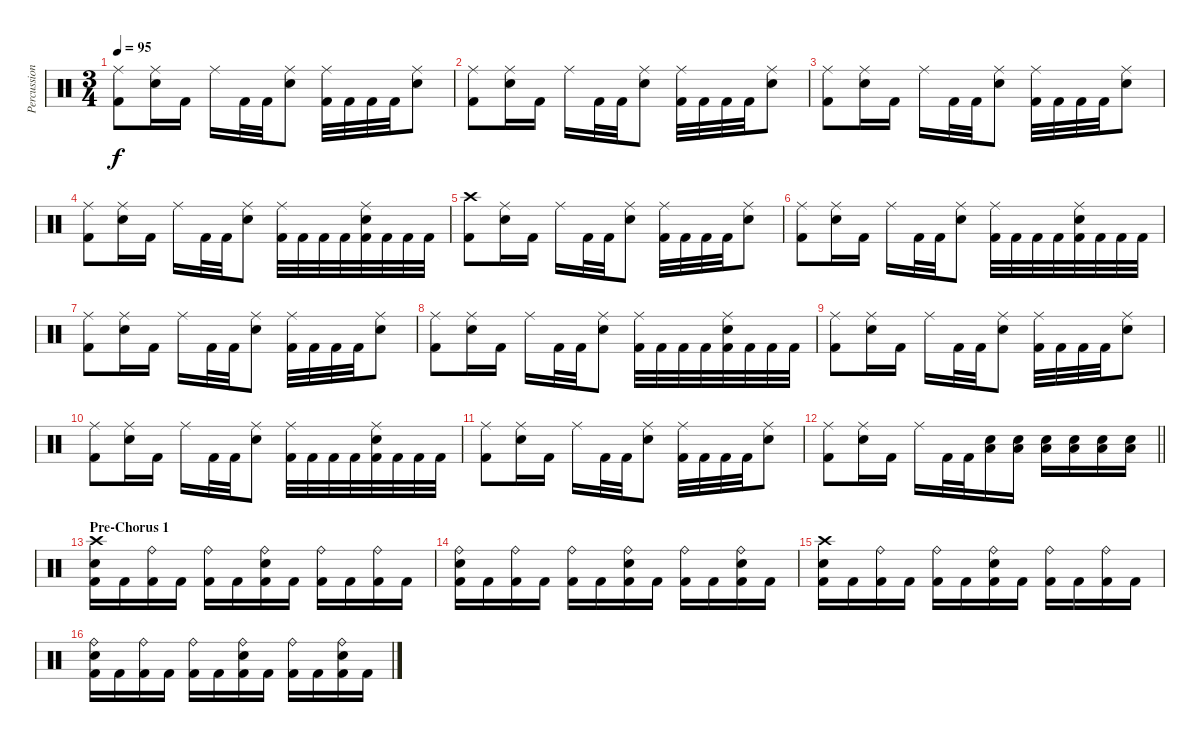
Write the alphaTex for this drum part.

\track ("Percussion Mike" "Percussion") {instrument percussion}
\staff {score}
\articulation defaults
\ts (3 4)
\tempo 95
\clef neutral
\ks c
("Ride (middle)" "Kick (hit) 2").8{dy f} ("Ride (middle)" "Snare (hit) 2").16 "Kick (hit) 2".16 "Ride (middle)".16 "Kick (hit) 2".32 "Kick (hit) 2".32 ("Ride (middle)" "Snare (hit) 2").8 ("Ride (middle)" "Kick (hit) 2").32 "Kick (hit) 2".32 "Kick (hit) 2".32 "Kick (hit) 2".32 ("Ride (middle)" "Snare (hit) 2").8 |
("Ride (middle)" "Kick (hit) 2").8 ("Ride (middle)" "Snare (hit) 2").16 "Kick (hit) 2".16 "Ride (middle)".16 "Kick (hit) 2".32 "Kick (hit) 2".32 ("Ride (middle)" "Snare (hit) 2").8 ("Ride (middle)" "Kick (hit) 2").32 "Kick (hit) 2".32 "Kick (hit) 2".32 "Kick (hit) 2".32 ("Ride (middle)" "Snare (hit) 2").8 |
("Ride (middle)" "Kick (hit) 2").8 ("Ride (middle)" "Snare (hit) 2").16 "Kick (hit) 2".16 "Ride (middle)".16 "Kick (hit) 2".32 "Kick (hit) 2".32 ("Ride (middle)" "Snare (hit) 2").8 ("Ride (middle)" "Kick (hit) 2").32 "Kick (hit) 2".32 "Kick (hit) 2".32 "Kick (hit) 2".32 ("Ride (middle)" "Snare (hit) 2").8 |
("Ride (middle)" "Kick (hit) 2").8 ("Ride (middle)" "Snare (hit) 2").16 "Kick (hit) 2".16 "Ride (middle)".16 "Kick (hit) 2".32 "Kick (hit) 2".32 ("Ride (middle)" "Snare (hit) 2").8 ("Ride (middle)" "Kick (hit) 2").32 "Kick (hit) 2".32 "Kick (hit) 2".32 "Kick (hit) 2".32 ("Ride (middle)" "Snare (hit) 2" "Kick (hit) 2").32 "Kick (hit) 2".32 "Kick (hit) 2".32 "Kick (hit) 2".32 |
("Crash high (hit)" "Kick (hit) 2").8 ("Ride (middle)" "Snare (hit) 2").16 "Kick (hit) 2".16 "Ride (middle)".16 "Kick (hit) 2".32 "Kick (hit) 2".32 ("Ride (middle)" "Snare (hit) 2").8 ("Ride (middle)" "Kick (hit) 2").32 "Kick (hit) 2".32 "Kick (hit) 2".32 "Kick (hit) 2".32 ("Ride (middle)" "Snare (hit) 2").8 |
("Ride (middle)" "Kick (hit) 2").8 ("Ride (middle)" "Snare (hit) 2").16 "Kick (hit) 2".16 "Ride (middle)".16 "Kick (hit) 2".32 "Kick (hit) 2".32 ("Ride (middle)" "Snare (hit) 2").8 ("Ride (middle)" "Kick (hit) 2").32 "Kick (hit) 2".32 "Kick (hit) 2".32 "Kick (hit) 2".32 ("Ride (middle)" "Snare (hit) 2" "Kick (hit) 2").32 "Kick (hit) 2".32 "Kick (hit) 2".32 "Kick (hit) 2".32 |
("Ride (middle)" "Kick (hit) 2").8 ("Ride (middle)" "Snare (hit) 2").16 "Kick (hit) 2".16 "Ride (middle)".16 "Kick (hit) 2".32 "Kick (hit) 2".32 ("Ride (middle)" "Snare (hit) 2").8 ("Ride (middle)" "Kick (hit) 2").32 "Kick (hit) 2".32 "Kick (hit) 2".32 "Kick (hit) 2".32 ("Ride (middle)" "Snare (hit) 2").8 |
("Ride (middle)" "Kick (hit) 2").8 ("Ride (middle)" "Snare (hit) 2").16 "Kick (hit) 2".16 "Ride (middle)".16 "Kick (hit) 2".32 "Kick (hit) 2".32 ("Ride (middle)" "Snare (hit) 2").8 ("Ride (middle)" "Kick (hit) 2").32 "Kick (hit) 2".32 "Kick (hit) 2".32 "Kick (hit) 2".32 ("Ride (middle)" "Snare (hit) 2" "Kick (hit) 2").32 "Kick (hit) 2".32 "Kick (hit) 2".32 "Kick (hit) 2".32 |
("Ride (middle)" "Kick (hit) 2").8 ("Ride (middle)" "Snare (hit) 2").16 "Kick (hit) 2".16 "Ride (middle)".16 "Kick (hit) 2".32 "Kick (hit) 2".32 ("Ride (middle)" "Snare (hit) 2").8 ("Ride (middle)" "Kick (hit) 2").32 "Kick (hit) 2".32 "Kick (hit) 2".32 "Kick (hit) 2".32 ("Ride (middle)" "Snare (hit) 2").8 |
("Ride (middle)" "Kick (hit) 2").8 ("Ride (middle)" "Snare (hit) 2").16 "Kick (hit) 2".16 "Ride (middle)".16 "Kick (hit) 2".32 "Kick (hit) 2".32 ("Ride (middle)" "Snare (hit) 2").8 ("Ride (middle)" "Kick (hit) 2").32 "Kick (hit) 2".32 "Kick (hit) 2".32 "Kick (hit) 2".32 ("Ride (middle)" "Snare (hit) 2" "Kick (hit) 2").32 "Kick (hit) 2".32 "Kick (hit) 2".32 "Kick (hit) 2".32 |
("Ride (middle)" "Kick (hit) 2").8 ("Ride (middle)" "Snare (hit) 2").16 "Kick (hit) 2".16 "Ride (middle)".16 "Kick (hit) 2".32 "Kick (hit) 2".32 ("Ride (middle)" "Snare (hit) 2").8 ("Ride (middle)" "Kick (hit) 2").32 "Kick (hit) 2".32 "Kick (hit) 2".32 "Kick (hit) 2".32 ("Ride (middle)" "Snare (hit) 2").8 |
\barLineRight lightlight
("Ride (middle)" "Kick (hit) 2").8 ("Ride (middle)" "Snare (hit) 2").16 "Kick (hit) 2".16 "Ride (middle)".16 "Kick (hit) 2".32 "Kick (hit) 2".32 ("Snare (hit) 2" "Low Floor Tom (hit)").16 ("Snare (hit) 2" "Low Floor Tom (hit)").16 ("Snare (hit) 2" "Low Floor Tom (hit)").16 ("Snare (hit) 2" "Low Floor Tom (hit)").16 ("Snare (hit) 2" "Low Floor Tom (hit)").16 ("Snare (hit) 2" "Low Floor Tom (hit)").16 |
\section ("" "Pre-Chorus 1")
("Crash high (hit)" "Snare (hit) 2" "Kick (hit) 2").16 "Kick (hit) 2".16 ("Ride (bell)" "Kick (hit) 2").16 "Kick (hit) 2".16 ("Ride (bell)" "Kick (hit) 2").16 "Kick (hit) 2".16 ("Ride (bell)" "Snare (hit) 2" "Kick (hit) 2").16 "Kick (hit) 2".16 ("Ride (bell)" "Kick (hit) 2").16 "Kick (hit) 2".16 ("Ride (bell)" "Kick (hit) 2").16 "Kick (hit) 2".16 |
("Ride (bell)" "Snare (hit) 2" "Kick (hit) 2").16 "Kick (hit) 2".16 ("Ride (bell)" "Kick (hit) 2").16 "Kick (hit) 2".16 ("Ride (bell)" "Kick (hit) 2").16 "Kick (hit) 2".16 ("Ride (bell)" "Snare (hit) 2" "Kick (hit) 2").16 "Kick (hit) 2".16 ("Ride (bell)" "Kick (hit) 2").16 "Kick (hit) 2".16 ("Ride (bell)" "Snare (hit) 2" "Kick (hit) 2").16 "Kick (hit) 2".16 |
("Crash high (hit)" "Snare (hit) 2" "Kick (hit) 2").16 "Kick (hit) 2".16 ("Ride (bell)" "Kick (hit) 2").16 "Kick (hit) 2".16 ("Ride (bell)" "Kick (hit) 2").16 "Kick (hit) 2".16 ("Ride (bell)" "Snare (hit) 2" "Kick (hit) 2").16 "Kick (hit) 2".16 ("Ride (bell)" "Kick (hit) 2").16 "Kick (hit) 2".16 ("Ride (bell)" "Kick (hit) 2").16 "Kick (hit) 2".16 |
("Ride (bell)" "Snare (hit) 2" "Kick (hit) 2").16 "Kick (hit) 2".16 ("Ride (bell)" "Kick (hit) 2").16 "Kick (hit) 2".16 ("Ride (bell)" "Kick (hit) 2").16 "Kick (hit) 2".16 ("Ride (bell)" "Snare (hit) 2" "Kick (hit) 2").16 "Kick (hit) 2".16 ("Ride (bell)" "Kick (hit) 2").16 "Kick (hit) 2".16 ("Ride (bell)" "Snare (hit) 2" "Kick (hit) 2").16 "Kick (hit) 2".16
